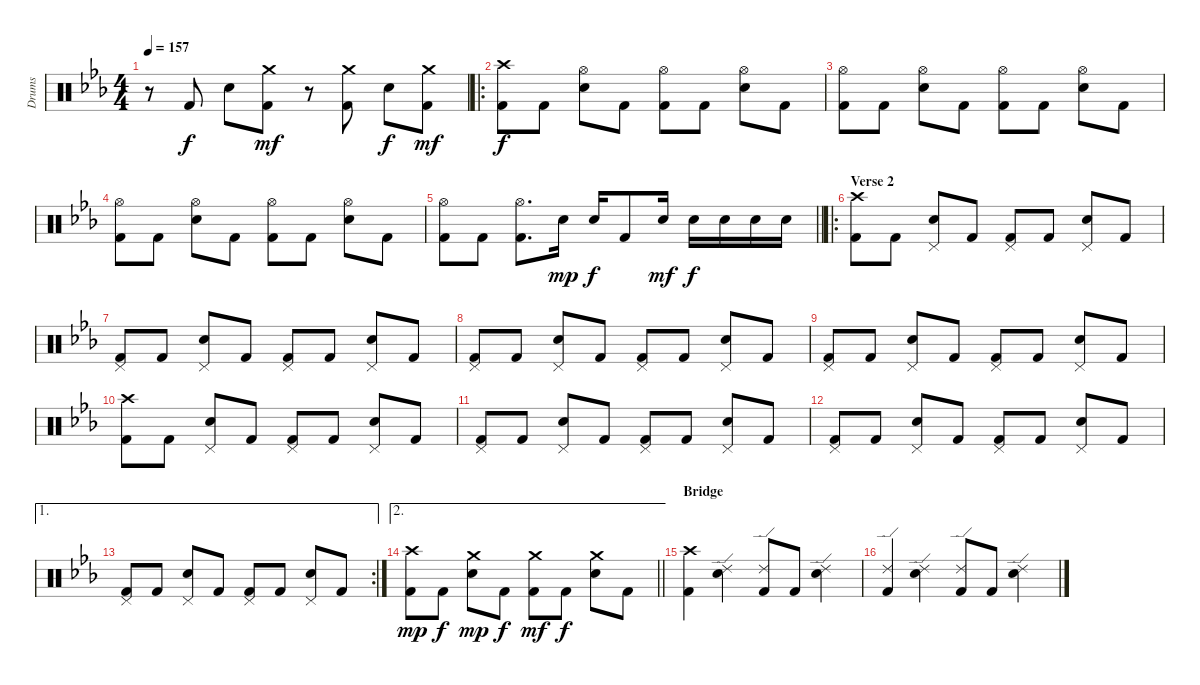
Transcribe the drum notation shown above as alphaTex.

\track ("Drums" "Drums") {instrument percussion}
\staff {score}
\articulation defaults
\ts (4 4)
\tempo 157
\clef neutral
\ks cminor
r.8{dy f} "Kick (hit) 2".8 "Electric Snare (hit)".8 ("Crash medium (hit)" "Kick (hit) 2").8{dy mf} r.8 ("Crash medium (hit)" "Kick (hit) 2").8 "Electric Snare (hit)".8{dy f} ("Crash medium (hit)" "Kick (hit) 2").8{dy mf} |
\ro
("Crash high (hit)" "Kick (hit) 2").8{dy f} "Kick (hit) 2".8 ("Hi-Hat (open)" "Electric Snare (hit)").8 "Kick (hit) 2".8 ("Hi-Hat (open)" "Kick (hit) 2").8 "Kick (hit) 2".8 ("Hi-Hat (open)" "Electric Snare (hit)").8 "Kick (hit) 2".8 |
("Hi-Hat (open)" "Kick (hit) 2").8 "Kick (hit) 2".8 ("Hi-Hat (open)" "Electric Snare (hit)").8 "Kick (hit) 2".8 ("Hi-Hat (open)" "Kick (hit) 2").8 "Kick (hit) 2".8 ("Hi-Hat (open)" "Electric Snare (hit)").8 "Kick (hit) 2".8 |
("Hi-Hat (open)" "Kick (hit) 2").8 "Kick (hit) 2".8 ("Hi-Hat (open)" "Electric Snare (hit)").8 "Kick (hit) 2".8 ("Hi-Hat (open)" "Kick (hit) 2").8 "Kick (hit) 2".8 ("Hi-Hat (open)" "Electric Snare (hit)").8 "Kick (hit) 2".8 |
\barLineRight lightlight
("Hi-Hat (open)" "Kick (hit) 2").8 "Kick (hit) 2".8 ("Hi-Hat (open)" "Kick (hit) 2").8{d} "Electric Snare (hit)".16{dy mp} "Electric Snare (hit)".16{dy f} "Kick (hit) 2".8 "Electric Snare (hit)".16{dy mf} "Electric Snare (hit)".16{dy f} "Electric Snare (hit)".16 "Electric Snare (hit)".16 "Electric Snare (hit)".16 |
\ro
\section ("" "Verse 2")
("Crash high (hit)" "Kick (hit) 2").8 "Kick (hit) 2".8 ("Pedal Hi-Hat (hit)" "Electric Snare (hit)").8 "Kick (hit) 2".8 ("Pedal Hi-Hat (hit)" "Kick (hit) 2").8 "Kick (hit) 2".8 ("Pedal Hi-Hat (hit)" "Electric Snare (hit)").8 "Kick (hit) 2".8 |
("Pedal Hi-Hat (hit)" "Kick (hit) 2").8 "Kick (hit) 2".8 ("Pedal Hi-Hat (hit)" "Electric Snare (hit)").8 "Kick (hit) 2".8 ("Pedal Hi-Hat (hit)" "Kick (hit) 2").8 "Kick (hit) 2".8 ("Pedal Hi-Hat (hit)" "Electric Snare (hit)").8 "Kick (hit) 2".8 |
("Pedal Hi-Hat (hit)" "Kick (hit) 2").8 "Kick (hit) 2".8 ("Pedal Hi-Hat (hit)" "Electric Snare (hit)").8 "Kick (hit) 2".8 ("Pedal Hi-Hat (hit)" "Kick (hit) 2").8 "Kick (hit) 2".8 ("Pedal Hi-Hat (hit)" "Electric Snare (hit)").8 "Kick (hit) 2".8 |
("Pedal Hi-Hat (hit)" "Kick (hit) 2").8 "Kick (hit) 2".8 ("Pedal Hi-Hat (hit)" "Electric Snare (hit)").8 "Kick (hit) 2".8 ("Pedal Hi-Hat (hit)" "Kick (hit) 2").8 "Kick (hit) 2".8 ("Pedal Hi-Hat (hit)" "Electric Snare (hit)").8 "Kick (hit) 2".8 |
("Crash high (hit)" "Kick (hit) 2").8 "Kick (hit) 2".8 ("Pedal Hi-Hat (hit)" "Electric Snare (hit)").8 "Kick (hit) 2".8 ("Pedal Hi-Hat (hit)" "Kick (hit) 2").8 "Kick (hit) 2".8 ("Pedal Hi-Hat (hit)" "Electric Snare (hit)").8 "Kick (hit) 2".8 |
("Pedal Hi-Hat (hit)" "Kick (hit) 2").8 "Kick (hit) 2".8 ("Pedal Hi-Hat (hit)" "Electric Snare (hit)").8 "Kick (hit) 2".8 ("Pedal Hi-Hat (hit)" "Kick (hit) 2").8 "Kick (hit) 2".8 ("Pedal Hi-Hat (hit)" "Electric Snare (hit)").8 "Kick (hit) 2".8 |
("Pedal Hi-Hat (hit)" "Kick (hit) 2").8 "Kick (hit) 2".8 ("Pedal Hi-Hat (hit)" "Electric Snare (hit)").8 "Kick (hit) 2".8 ("Pedal Hi-Hat (hit)" "Kick (hit) 2").8 "Kick (hit) 2".8 ("Pedal Hi-Hat (hit)" "Electric Snare (hit)").8 "Kick (hit) 2".8 |
\ae 1
\rc 2
("Pedal Hi-Hat (hit)" "Kick (hit) 2").8 "Kick (hit) 2".8 ("Pedal Hi-Hat (hit)" "Electric Snare (hit)").8 "Kick (hit) 2".8 ("Pedal Hi-Hat (hit)" "Kick (hit) 2").8 "Kick (hit) 2".8 ("Pedal Hi-Hat (hit)" "Electric Snare (hit)").8 "Kick (hit) 2".8 |
\ae 2
\barLineRight lightlight
("Crash high (hit)" "Kick (hit) 2").8{dy mp} "Kick (hit) 2".8{dy f} ("Crash medium (hit)" "Electric Snare (hit)").8{dy mp} "Kick (hit) 2".8{dy f} ("Crash medium (hit)" "Kick (hit) 2").8{dy mf} "Kick (hit) 2".8{dy f} ("Crash medium (hit)" "Electric Snare (hit)").8 "Kick (hit) 2".8 |
\section ("" "Bridge")
("Crash high (hit)" "Kick (hit) 2").4 ("Ride (edge) 2" "Electric Snare (hit)").4 ("Ride (edge) 2" "Kick (hit) 2").8 "Kick (hit) 2".8 ("Ride (edge) 2" "Electric Snare (hit)").4 |
("Ride (edge) 2" "Kick (hit) 2").4 ("Ride (edge) 2" "Electric Snare (hit)").4 ("Ride (edge) 2" "Kick (hit) 2").8 "Kick (hit) 2".8 ("Ride (edge) 2" "Electric Snare (hit)").4
